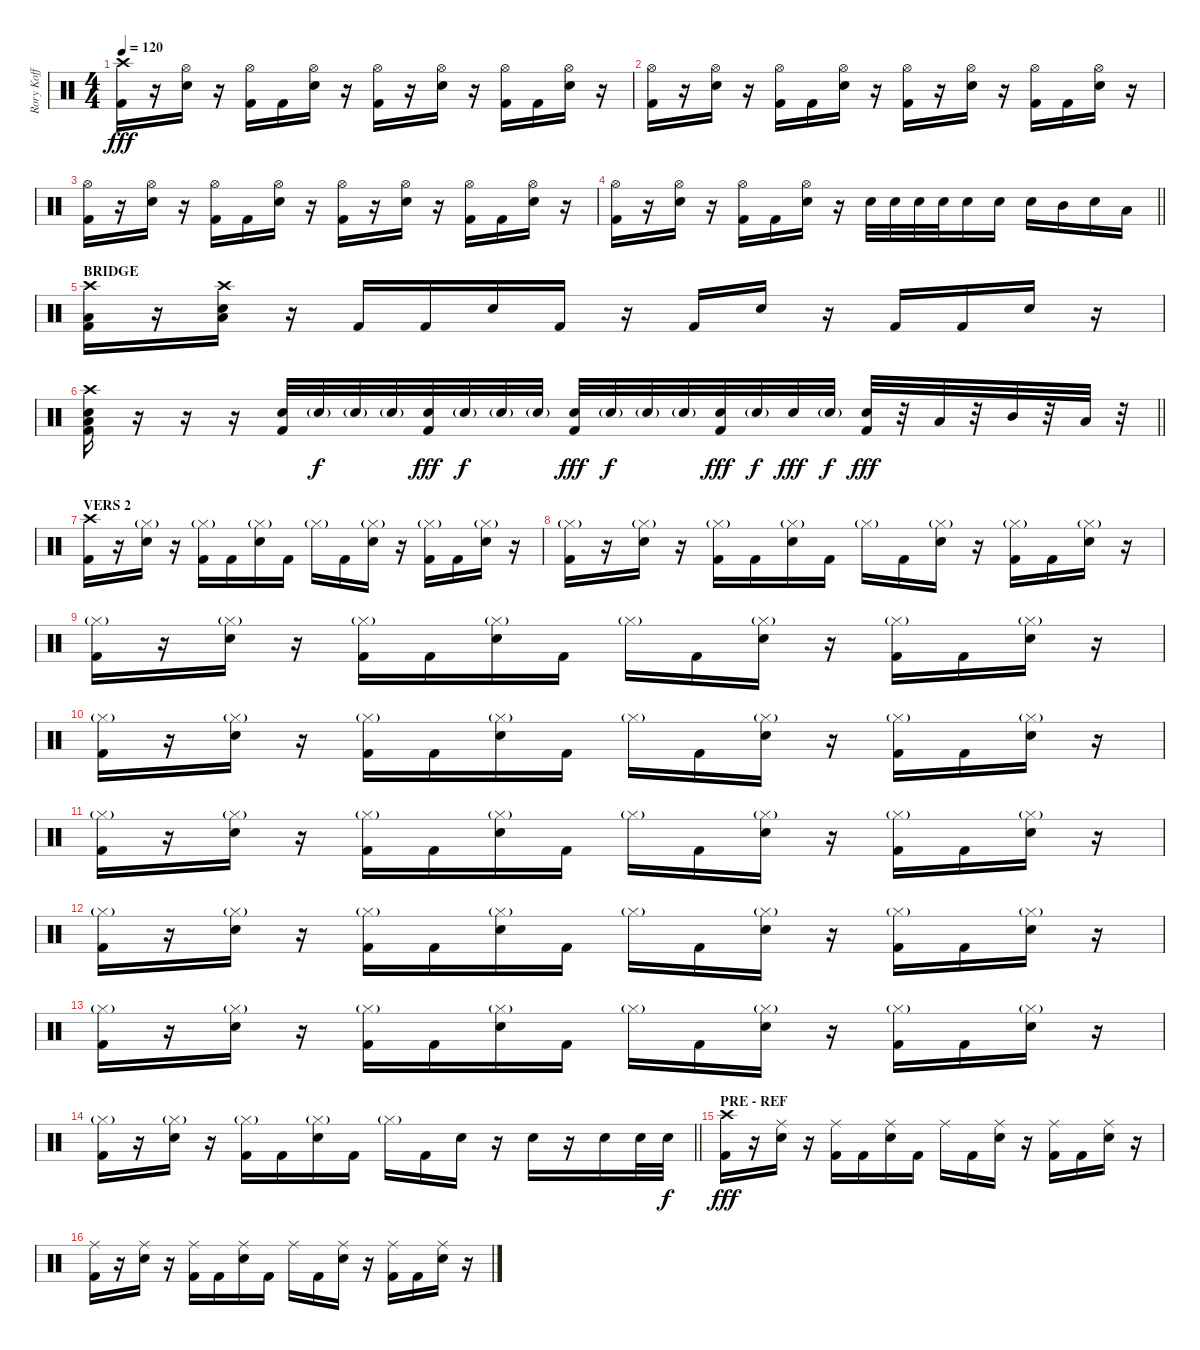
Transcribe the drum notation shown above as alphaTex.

\track ("Rory Koff" "Rory Koff") {instrument percussion}
\staff {score}
\articulation defaults
\ts (4 4)
\tempo 120
\clef neutral
\ks c
("Crash high (hit)" "Kick (hit) 2").16{dy fff} r.16 ("Hi-Hat (open)" "Snare (hit) 2").16 r.16 ("Hi-Hat (open)" "Kick (hit) 2").16 "Kick (hit) 2".16 ("Hi-Hat (open)" "Snare (hit) 2").16 r.16 ("Hi-Hat (open)" "Kick (hit) 2").16 r.16 ("Hi-Hat (open)" "Snare (hit) 2").16 r.16 ("Hi-Hat (open)" "Kick (hit) 2").16 "Kick (hit) 2".16 ("Hi-Hat (open)" "Snare (hit) 2").16 r.16 |
("Hi-Hat (open)" "Kick (hit) 2").16 r.16 ("Hi-Hat (open)" "Snare (hit) 2").16 r.16 ("Hi-Hat (open)" "Kick (hit) 2").16 "Kick (hit) 2".16 ("Hi-Hat (open)" "Snare (hit) 2").16 r.16 ("Hi-Hat (open)" "Kick (hit) 2").16 r.16 ("Hi-Hat (open)" "Snare (hit) 2").16 r.16 ("Hi-Hat (open)" "Kick (hit) 2").16 "Kick (hit) 2".16 ("Hi-Hat (open)" "Snare (hit) 2").16 r.16 |
("Hi-Hat (open)" "Kick (hit) 2").16 r.16 ("Hi-Hat (open)" "Snare (hit) 2").16 r.16 ("Hi-Hat (open)" "Kick (hit) 2").16 "Kick (hit) 2".16 ("Hi-Hat (open)" "Snare (hit) 2").16 r.16 ("Hi-Hat (open)" "Kick (hit) 2").16 r.16 ("Hi-Hat (open)" "Snare (hit) 2").16 r.16 ("Hi-Hat (open)" "Kick (hit) 2").16 "Kick (hit) 2".16 ("Hi-Hat (open)" "Snare (hit) 2").16 r.16 |
\barLineRight lightlight
("Hi-Hat (open)" "Kick (hit) 2").16 r.16 ("Hi-Hat (open)" "Snare (hit) 2").16 r.16 ("Hi-Hat (open)" "Kick (hit) 2").16 "Kick (hit) 2".16 ("Hi-Hat (open)" "Snare (hit) 2").16 r.16 "Snare (hit) 2".32 "Snare (hit) 2".32 "Snare (hit) 2".32 "Snare (hit) 2".32 "Snare (hit) 2".16 "Snare (hit) 2".16 "Snare (hit) 2".16 "Mid Tom (hit)".16 "Snare (hit) 2".16 "Low Floor Tom (hit)".16 |
\section ("" "BRIDGE")
("Crash high (hit)" "Low Floor Tom (hit)" "Kick (hit) 2").16 r.16 ("Crash high (hit)" "Low Floor Tom (hit)" "Snare (hit) 2").16 r.16 "Kick (hit) 2".16 "Kick (hit) 2".16 "Snare (hit) 2".16 "Kick (hit) 2".16 r.16 "Kick (hit) 2".16 "Snare (hit) 2".16 r.16 "Kick (hit) 2".16 "Kick (hit) 2".16 "Snare (hit) 2".16 r.16 |
\barLineRight lightlight
("Crash high (hit)" "Low Floor Tom (hit)" "Snare (hit) 2" "Kick (hit) 2").16 r.16 r.16 r.16 ("Snare (hit) 2" "Kick (hit) 2").32 "Snare (hit) 2"{g}.32{dy f} "Snare (hit) 2"{g}.32 "Snare (hit) 2"{g}.32 ("Snare (hit) 2" "Kick (hit) 2").32{dy fff} "Snare (hit) 2"{g}.32{dy f} "Snare (hit) 2"{g}.32 "Snare (hit) 2"{g}.32 ("Snare (hit) 2" "Kick (hit) 2").32{dy fff} "Snare (hit) 2"{g}.32{dy f} "Snare (hit) 2"{g}.32 "Snare (hit) 2"{g}.32 ("Snare (hit) 2" "Kick (hit) 2").32{dy fff} "Snare (hit) 2"{g}.32{dy f} "Snare (hit) 2".32{dy fff} "Snare (hit) 2"{g}.32{dy f} ("Snare (hit) 2" "Kick (hit) 2").32{dy fff} r.32 "Low Tom (hit)".32 r.32 "Mid Tom (hit)".32 r.32 "Low Floor Tom (hit)".32 r.32 |
\section ("" "VERS 2")
("Crash high (hit)" "Kick (hit) 2").16 r.16 ("Hi-Hat (closed)"{g} "Snare (hit) 2").16 r.16 ("Hi-Hat (closed)"{g} "Kick (hit) 2").16 "Kick (hit) 2".16 ("Hi-Hat (closed)"{g} "Snare (hit) 2").16 "Kick (hit) 2".16 "Hi-Hat (closed)"{g}.16 "Kick (hit) 2".16 ("Hi-Hat (closed)"{g} "Snare (hit) 2").16 r.16 ("Hi-Hat (closed)"{g} "Kick (hit) 2").16 "Kick (hit) 2".16 ("Hi-Hat (closed)"{g} "Snare (hit) 2").16 r.16 |
("Hi-Hat (closed)"{g} "Kick (hit) 2").16 r.16 ("Hi-Hat (closed)"{g} "Snare (hit) 2").16 r.16 ("Hi-Hat (closed)"{g} "Kick (hit) 2").16 "Kick (hit) 2".16 ("Hi-Hat (closed)"{g} "Snare (hit) 2").16 "Kick (hit) 2".16 "Hi-Hat (closed)"{g}.16 "Kick (hit) 2".16 ("Hi-Hat (closed)"{g} "Snare (hit) 2").16 r.16 ("Hi-Hat (closed)"{g} "Kick (hit) 2").16 "Kick (hit) 2".16 ("Hi-Hat (closed)"{g} "Snare (hit) 2").16 r.16 |
("Hi-Hat (closed)"{g} "Kick (hit) 2").16 r.16 ("Hi-Hat (closed)"{g} "Snare (hit) 2").16 r.16 ("Hi-Hat (closed)"{g} "Kick (hit) 2").16 "Kick (hit) 2".16 ("Hi-Hat (closed)"{g} "Snare (hit) 2").16 "Kick (hit) 2".16 "Hi-Hat (closed)"{g}.16 "Kick (hit) 2".16 ("Hi-Hat (closed)"{g} "Snare (hit) 2").16 r.16 ("Hi-Hat (closed)"{g} "Kick (hit) 2").16 "Kick (hit) 2".16 ("Hi-Hat (closed)"{g} "Snare (hit) 2").16 r.16 |
("Hi-Hat (closed)"{g} "Kick (hit) 2").16 r.16 ("Hi-Hat (closed)"{g} "Snare (hit) 2").16 r.16 ("Hi-Hat (closed)"{g} "Kick (hit) 2").16 "Kick (hit) 2".16 ("Hi-Hat (closed)"{g} "Snare (hit) 2").16 "Kick (hit) 2".16 "Hi-Hat (closed)"{g}.16 "Kick (hit) 2".16 ("Hi-Hat (closed)"{g} "Snare (hit) 2").16 r.16 ("Hi-Hat (closed)"{g} "Kick (hit) 2").16 "Kick (hit) 2".16 ("Hi-Hat (closed)"{g} "Snare (hit) 2").16 r.16 |
("Hi-Hat (closed)"{g} "Kick (hit) 2").16 r.16 ("Hi-Hat (closed)"{g} "Snare (hit) 2").16 r.16 ("Hi-Hat (closed)"{g} "Kick (hit) 2").16 "Kick (hit) 2".16 ("Hi-Hat (closed)"{g} "Snare (hit) 2").16 "Kick (hit) 2".16 "Hi-Hat (closed)"{g}.16 "Kick (hit) 2".16 ("Hi-Hat (closed)"{g} "Snare (hit) 2").16 r.16 ("Hi-Hat (closed)"{g} "Kick (hit) 2").16 "Kick (hit) 2".16 ("Hi-Hat (closed)"{g} "Snare (hit) 2").16 r.16 |
("Hi-Hat (closed)"{g} "Kick (hit) 2").16 r.16 ("Hi-Hat (closed)"{g} "Snare (hit) 2").16 r.16 ("Hi-Hat (closed)"{g} "Kick (hit) 2").16 "Kick (hit) 2".16 ("Hi-Hat (closed)"{g} "Snare (hit) 2").16 "Kick (hit) 2".16 "Hi-Hat (closed)"{g}.16 "Kick (hit) 2".16 ("Hi-Hat (closed)"{g} "Snare (hit) 2").16 r.16 ("Hi-Hat (closed)"{g} "Kick (hit) 2").16 "Kick (hit) 2".16 ("Hi-Hat (closed)"{g} "Snare (hit) 2").16 r.16 |
("Hi-Hat (closed)"{g} "Kick (hit) 2").16 r.16 ("Hi-Hat (closed)"{g} "Snare (hit) 2").16 r.16 ("Hi-Hat (closed)"{g} "Kick (hit) 2").16 "Kick (hit) 2".16 ("Hi-Hat (closed)"{g} "Snare (hit) 2").16 "Kick (hit) 2".16 "Hi-Hat (closed)"{g}.16 "Kick (hit) 2".16 ("Hi-Hat (closed)"{g} "Snare (hit) 2").16 r.16 ("Hi-Hat (closed)"{g} "Kick (hit) 2").16 "Kick (hit) 2".16 ("Hi-Hat (closed)"{g} "Snare (hit) 2").16 r.16 |
\barLineRight lightlight
("Hi-Hat (closed)"{g} "Kick (hit) 2").16 r.16 ("Hi-Hat (closed)"{g} "Snare (hit) 2").16 r.16 ("Hi-Hat (closed)"{g} "Kick (hit) 2").16 "Kick (hit) 2".16 ("Hi-Hat (closed)"{g} "Snare (hit) 2").16 "Kick (hit) 2".16 "Hi-Hat (closed)"{g}.16 "Kick (hit) 2".16 "Snare (hit) 2".16 r.16 "Snare (hit) 2".16 r.16 "Snare (hit) 2".16 "Snare (hit) 2".32 "Snare (hit) 2".32{dy f} |
\section ("" "PRE - REF")
("Crash high (hit)" "Kick (hit) 2").16{dy fff} r.16 ("Ride (middle)" "Snare (hit) 2").16 r.16 ("Ride (middle)" "Kick (hit) 2").16 "Kick (hit) 2".16 ("Ride (middle)" "Snare (hit) 2").16 "Kick (hit) 2".16 "Ride (middle)".16 "Kick (hit) 2".16 ("Ride (middle)" "Snare (hit) 2").16 r.16 ("Ride (middle)" "Kick (hit) 2").16 "Kick (hit) 2".16 ("Ride (middle)" "Snare (hit) 2").16 r.16 |
("Ride (middle)" "Kick (hit) 2").16 r.16 ("Ride (middle)" "Snare (hit) 2").16 r.16 ("Ride (middle)" "Kick (hit) 2").16 "Kick (hit) 2".16 ("Ride (middle)" "Snare (hit) 2").16 "Kick (hit) 2".16 "Ride (middle)".16 "Kick (hit) 2".16 ("Ride (middle)" "Snare (hit) 2").16 r.16 ("Ride (middle)" "Kick (hit) 2").16 "Kick (hit) 2".16 ("Ride (middle)" "Snare (hit) 2").16 r.16
